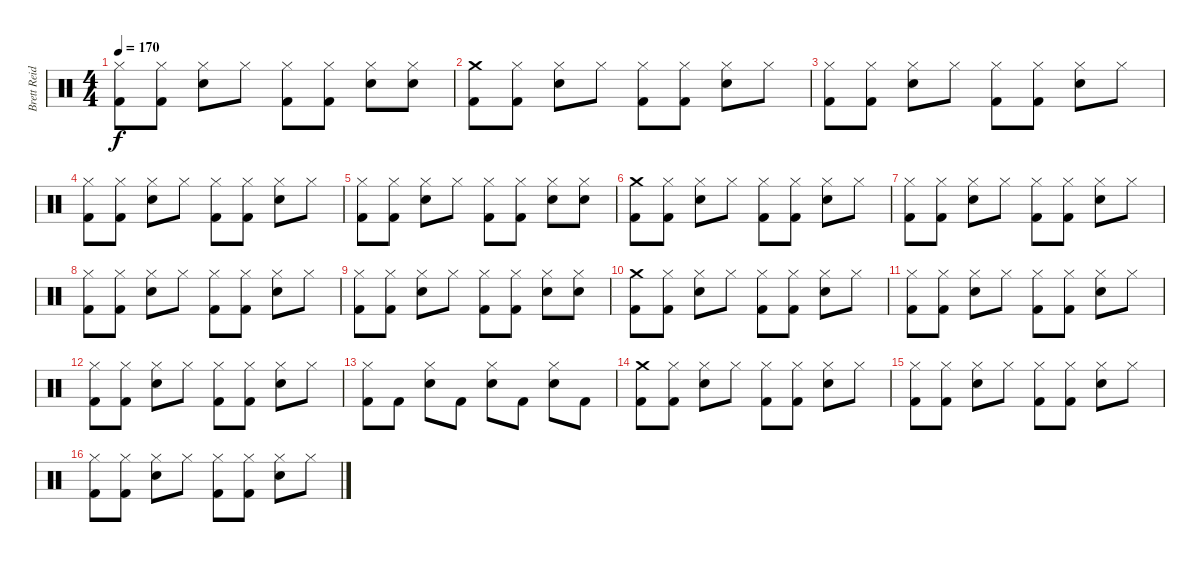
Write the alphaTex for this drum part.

\track ("Brett Reid" "Brett Reid") {instrument percussion}
\staff {score}
\articulation defaults
\ts (4 4)
\tempo 170
\clef neutral
\ks c
("Hi-Hat (closed)" "Kick (hit) 2").8{dy f} ("Hi-Hat (closed)" "Kick (hit) 2").8 ("Hi-Hat (closed)" "Snare (hit) 2").8 "Hi-Hat (closed)".8 ("Hi-Hat (closed)" "Kick (hit) 2").8 ("Hi-Hat (closed)" "Kick (hit) 2").8 ("Hi-Hat (closed)" "Snare (hit) 2").8 ("Hi-Hat (closed)" "Snare (hit) 2").8 |
("Crash medium (hit)" "Kick (hit) 2").8 ("Hi-Hat (closed)" "Kick (hit) 2").8 ("Hi-Hat (closed)" "Snare (hit) 2").8 "Hi-Hat (closed)".8 ("Hi-Hat (closed)" "Kick (hit) 2").8 ("Hi-Hat (closed)" "Kick (hit) 2").8 ("Hi-Hat (closed)" "Snare (hit) 2").8 "Hi-Hat (closed)".8 |
("Hi-Hat (closed)" "Kick (hit) 2").8 ("Hi-Hat (closed)" "Kick (hit) 2").8 ("Hi-Hat (closed)" "Snare (hit) 2").8 "Hi-Hat (closed)".8 ("Hi-Hat (closed)" "Kick (hit) 2").8 ("Hi-Hat (closed)" "Kick (hit) 2").8 ("Hi-Hat (closed)" "Snare (hit) 2").8 "Hi-Hat (closed)".8 |
("Hi-Hat (closed)" "Kick (hit) 2").8 ("Hi-Hat (closed)" "Kick (hit) 2").8 ("Hi-Hat (closed)" "Snare (hit) 2").8 "Hi-Hat (closed)".8 ("Hi-Hat (closed)" "Kick (hit) 2").8 ("Hi-Hat (closed)" "Kick (hit) 2").8 ("Hi-Hat (closed)" "Snare (hit) 2").8 "Hi-Hat (closed)".8 |
("Hi-Hat (closed)" "Kick (hit) 2").8 ("Hi-Hat (closed)" "Kick (hit) 2").8 ("Hi-Hat (closed)" "Snare (hit) 2").8 "Hi-Hat (closed)".8 ("Hi-Hat (closed)" "Kick (hit) 2").8 ("Hi-Hat (closed)" "Kick (hit) 2").8 ("Hi-Hat (closed)" "Snare (hit) 2").8 ("Hi-Hat (closed)" "Snare (hit) 2").8 |
("Crash medium (hit)" "Kick (hit) 2").8 ("Hi-Hat (closed)" "Kick (hit) 2").8 ("Hi-Hat (closed)" "Snare (hit) 2").8 "Hi-Hat (closed)".8 ("Hi-Hat (closed)" "Kick (hit) 2").8 ("Hi-Hat (closed)" "Kick (hit) 2").8 ("Hi-Hat (closed)" "Snare (hit) 2").8 "Hi-Hat (closed)".8 |
("Hi-Hat (closed)" "Kick (hit) 2").8 ("Hi-Hat (closed)" "Kick (hit) 2").8 ("Hi-Hat (closed)" "Snare (hit) 2").8 "Hi-Hat (closed)".8 ("Hi-Hat (closed)" "Kick (hit) 2").8 ("Hi-Hat (closed)" "Kick (hit) 2").8 ("Hi-Hat (closed)" "Snare (hit) 2").8 "Hi-Hat (closed)".8 |
("Hi-Hat (closed)" "Kick (hit) 2").8 ("Hi-Hat (closed)" "Kick (hit) 2").8 ("Hi-Hat (closed)" "Snare (hit) 2").8 "Hi-Hat (closed)".8 ("Hi-Hat (closed)" "Kick (hit) 2").8 ("Hi-Hat (closed)" "Kick (hit) 2").8 ("Hi-Hat (closed)" "Snare (hit) 2").8 "Hi-Hat (closed)".8 |
("Hi-Hat (closed)" "Kick (hit) 2").8 ("Hi-Hat (closed)" "Kick (hit) 2").8 ("Hi-Hat (closed)" "Snare (hit) 2").8 "Hi-Hat (closed)".8 ("Hi-Hat (closed)" "Kick (hit) 2").8 ("Hi-Hat (closed)" "Kick (hit) 2").8 ("Hi-Hat (closed)" "Snare (hit) 2").8 ("Hi-Hat (closed)" "Snare (hit) 2").8 |
("Crash medium (hit)" "Kick (hit) 2").8 ("Hi-Hat (closed)" "Kick (hit) 2").8 ("Hi-Hat (closed)" "Snare (hit) 2").8 "Hi-Hat (closed)".8 ("Hi-Hat (closed)" "Kick (hit) 2").8 ("Hi-Hat (closed)" "Kick (hit) 2").8 ("Hi-Hat (closed)" "Snare (hit) 2").8 "Hi-Hat (closed)".8 |
("Hi-Hat (closed)" "Kick (hit) 2").8 ("Hi-Hat (closed)" "Kick (hit) 2").8 ("Hi-Hat (closed)" "Snare (hit) 2").8 "Hi-Hat (closed)".8 ("Hi-Hat (closed)" "Kick (hit) 2").8 ("Hi-Hat (closed)" "Kick (hit) 2").8 ("Hi-Hat (closed)" "Snare (hit) 2").8 "Hi-Hat (closed)".8 |
("Hi-Hat (closed)" "Kick (hit) 2").8 ("Hi-Hat (closed)" "Kick (hit) 2").8 ("Hi-Hat (closed)" "Snare (hit) 2").8 "Hi-Hat (closed)".8 ("Hi-Hat (closed)" "Kick (hit) 2").8 ("Hi-Hat (closed)" "Kick (hit) 2").8 ("Hi-Hat (closed)" "Snare (hit) 2").8 "Hi-Hat (closed)".8 |
("Hi-Hat (closed)" "Kick (hit) 2").8 "Kick (hit) 2".8 ("Hi-Hat (closed)" "Snare (hit) 2").8 "Kick (hit) 2".8 ("Hi-Hat (closed)" "Snare (hit) 2").8 "Kick (hit) 2".8 ("Hi-Hat (closed)" "Snare (hit) 2").8 "Kick (hit) 2".8 |
("Crash medium (hit)" "Kick (hit) 2").8 ("Hi-Hat (closed)" "Kick (hit) 2").8 ("Hi-Hat (closed)" "Snare (hit) 2").8 "Hi-Hat (closed)".8 ("Hi-Hat (closed)" "Kick (hit) 2").8 ("Hi-Hat (closed)" "Kick (hit) 2").8 ("Hi-Hat (closed)" "Snare (hit) 2").8 "Hi-Hat (closed)".8 |
("Hi-Hat (closed)" "Kick (hit) 2").8 ("Hi-Hat (closed)" "Kick (hit) 2").8 ("Hi-Hat (closed)" "Snare (hit) 2").8 "Hi-Hat (closed)".8 ("Hi-Hat (closed)" "Kick (hit) 2").8 ("Hi-Hat (closed)" "Kick (hit) 2").8 ("Hi-Hat (closed)" "Snare (hit) 2").8 "Hi-Hat (closed)".8 |
("Hi-Hat (closed)" "Kick (hit) 2").8 ("Hi-Hat (closed)" "Kick (hit) 2").8 ("Hi-Hat (closed)" "Snare (hit) 2").8 "Hi-Hat (closed)".8 ("Hi-Hat (closed)" "Kick (hit) 2").8 ("Hi-Hat (closed)" "Kick (hit) 2").8 ("Hi-Hat (closed)" "Snare (hit) 2").8 "Hi-Hat (closed)".8
